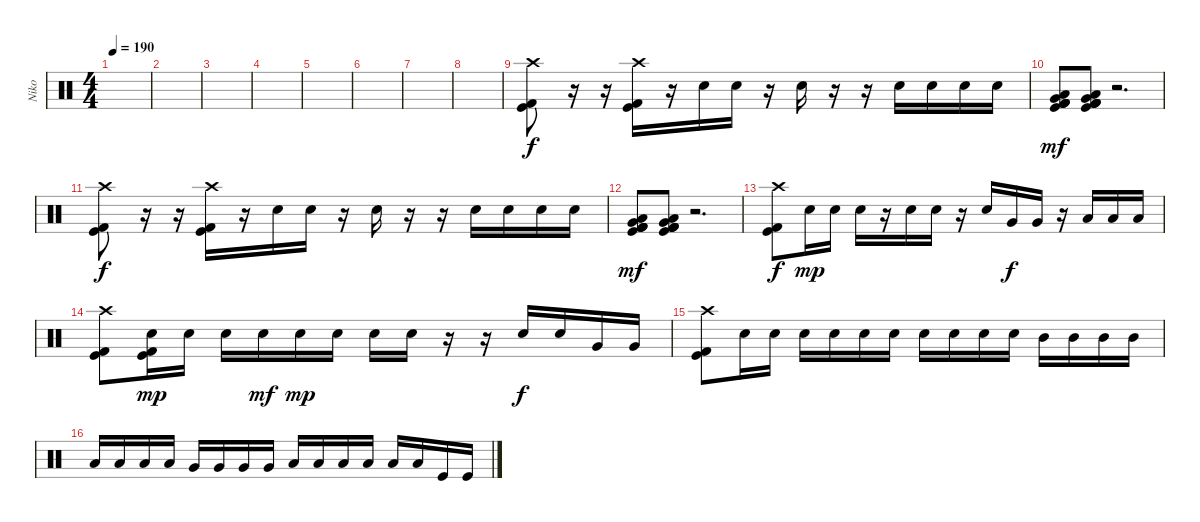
\track ("Niko" "Niko") {instrument percussion}
\staff {score}
\articulation defaults
\ts (4 4)
\tempo 190
\clef neutral
\ks c
|
|
|
|
|
|
|
|
("Crash high (hit)" "Kick (hit) 2" "Kick (hit)").8 r.16 r.16 ("Crash high (hit)" "Kick (hit) 2" "Kick (hit)").16 r.16 "Electric Snare (hit)".16 "Electric Snare (hit)".16 r.16 "Electric Snare (hit)".16 r.16 r.16 "Electric Snare (hit)".16 "Electric Snare (hit)".16 "Electric Snare (hit)".16 "Electric Snare (hit)".16 |
("Kick (hit) 2" "Kick (hit) 2" "Very Low Tom (hit)" "Low Floor Tom (hit)" "Kick (hit) 2" "Kick (hit)").8{dy mf} ("Kick (hit) 2" "Kick (hit) 2" "Very Low Tom (hit)" "Low Floor Tom (hit)" "Kick (hit) 2" "Kick (hit)").8 r.2{d} |
("Crash high (hit)" "Kick (hit) 2" "Kick (hit)").8{dy f} r.16 r.16 ("Crash high (hit)" "Kick (hit) 2" "Kick (hit)").16 r.16 "Electric Snare (hit)".16 "Electric Snare (hit)".16 r.16 "Electric Snare (hit)".16 r.16 r.16 "Electric Snare (hit)".16 "Electric Snare (hit)".16 "Electric Snare (hit)".16 "Electric Snare (hit)".16 |
("Kick (hit) 2" "Kick (hit) 2" "Very Low Tom (hit)" "Low Floor Tom (hit)" "Kick (hit) 2" "Kick (hit)").8{dy mf} ("Kick (hit) 2" "Kick (hit) 2" "Very Low Tom (hit)" "Low Floor Tom (hit)" "Kick (hit) 2" "Kick (hit)").8 r.2{d} |
("Crash high (hit)" "Kick (hit) 2" "Kick (hit)").8{dy f} "Electric Snare (hit)".16{dy mp} "Electric Snare (hit)".16 "Electric Snare (hit)".16 r.16 "Electric Snare (hit)".16 "Electric Snare (hit)".16 r.16 "Electric Snare (hit)".16 "Very Low Tom (hit)".16{dy f} "Very Low Tom (hit)".16 r.16 "Low Floor Tom (hit)".16 "Low Floor Tom (hit)".16 "Low Floor Tom (hit)".16 |
("Crash high (hit)" "Kick (hit) 2" "Kick (hit)").8 ("Electric Snare (hit)" "Kick (hit) 2" "Kick (hit)").16{dy mp} "Electric Snare (hit)".16 "Electric Snare (hit)".16 "Electric Snare (hit)".16{dy mf} "Electric Snare (hit)".16{dy mp} "Electric Snare (hit)".16 "Electric Snare (hit)".16 "Electric Snare (hit)".16 r.16 r.16 "Electric Snare (hit)".16{dy f} "Electric Snare (hit)".16 "Very Low Tom (hit)".16 "Very Low Tom (hit)".16 |
("Crash high (hit)" "Kick (hit) 2" "Kick (hit)").8 "Electric Snare (hit)".16 "Electric Snare (hit)".16 "Electric Snare (hit)".16 "Electric Snare (hit)".16 "Electric Snare (hit)".16 "Electric Snare (hit)".16 "Electric Snare (hit)".16 "Electric Snare (hit)".16 "Electric Snare (hit)".16 "Electric Snare (hit)".16 "Mid Tom (hit)".16 "Mid Tom (hit)".16 "Mid Tom (hit)".16 "Mid Tom (hit)".16 |
"Low Tom (hit)".16 "Low Tom (hit)".16 "Low Tom (hit)".16 "Low Tom (hit)".16 "Very Low Tom (hit)".16 "Very Low Tom (hit)".16 "Very Low Tom (hit)".16 "Very Low Tom (hit)".16 "Low Floor Tom (hit)".16 "Low Floor Tom (hit)".16 "Low Floor Tom (hit)".16 "Low Floor Tom (hit)".16 "Low Floor Tom (hit)".16 "Low Floor Tom (hit)".16 "Kick (hit)".16 "Kick (hit)".16
